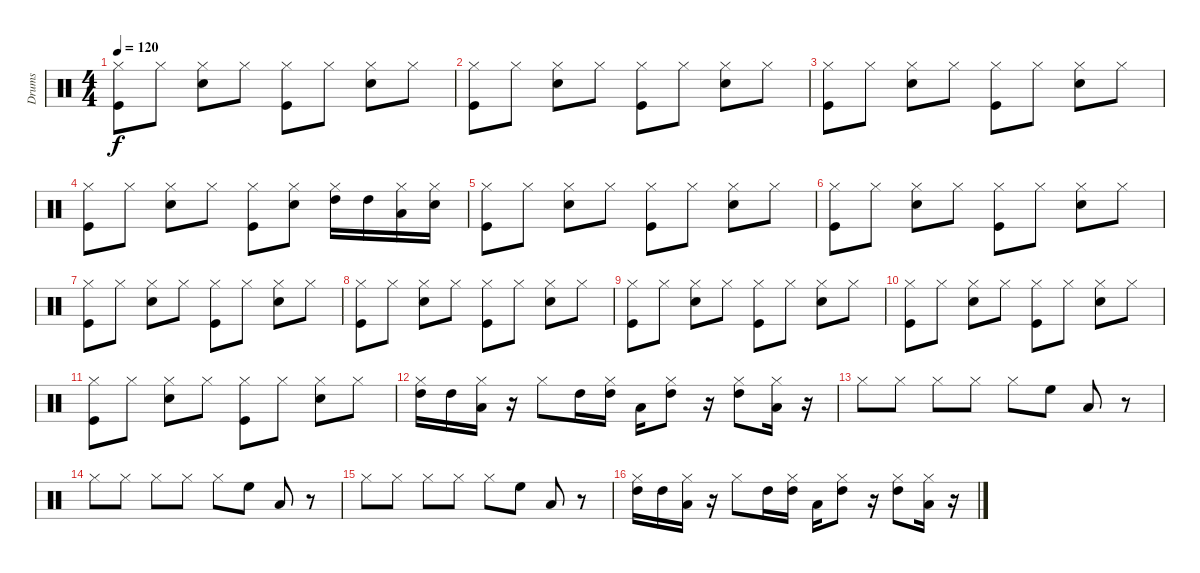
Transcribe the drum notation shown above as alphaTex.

\track ("Drums" "Drums") {instrument percussion}
\staff {score}
\articulation defaults
\ts (4 4)
\tempo 120
\clef neutral
\ks c
("Kick (hit)" "Hi-Hat (closed)").8{dy f} "Hi-Hat (closed)".8 ("Snare (hit) 2" "Hi-Hat (closed)").8 "Hi-Hat (closed)".8 ("Kick (hit)" "Hi-Hat (closed)").8 "Hi-Hat (closed)".8 ("Snare (hit) 2" "Hi-Hat (closed)").8 "Hi-Hat (closed)".8 |
("Kick (hit)" "Hi-Hat (closed)").8 "Hi-Hat (closed)".8 ("Snare (hit) 2" "Hi-Hat (closed)").8 "Hi-Hat (closed)".8 ("Kick (hit)" "Hi-Hat (closed)").8 "Hi-Hat (closed)".8 ("Snare (hit) 2" "Hi-Hat (closed)").8 "Hi-Hat (closed)".8 |
("Kick (hit)" "Hi-Hat (closed)").8 "Hi-Hat (closed)".8 ("Snare (hit) 2" "Hi-Hat (closed)").8 "Hi-Hat (closed)".8 ("Kick (hit)" "Hi-Hat (closed)").8 "Hi-Hat (closed)".8 ("Snare (hit) 2" "Hi-Hat (closed)").8 "Hi-Hat (closed)".8 |
("Kick (hit)" "Hi-Hat (closed)").8 "Hi-Hat (closed)".8 ("Snare (hit) 2" "Hi-Hat (closed)").8 "Hi-Hat (closed)".8 ("Kick (hit)" "Hi-Hat (closed)").8 ("Snare (hit) 2" "Hi-Hat (closed)").8 ("High Tom (hit)" "Hi-Hat (closed)").16 "High Tom (hit)".16 ("Low Tom (hit)" "Hi-Hat (closed)").16 ("Snare (hit) 2" "Hi-Hat (closed)").16 |
("Kick (hit)" "Hi-Hat (closed)").8 "Hi-Hat (closed)".8 ("Snare (hit) 2" "Hi-Hat (closed)").8 "Hi-Hat (closed)".8 ("Kick (hit)" "Hi-Hat (closed)").8 "Hi-Hat (closed)".8 ("Snare (hit) 2" "Hi-Hat (closed)").8 "Hi-Hat (closed)".8 |
("Kick (hit)" "Hi-Hat (closed)").8 "Hi-Hat (closed)".8 ("Snare (hit) 2" "Hi-Hat (closed)").8 "Hi-Hat (closed)".8 ("Kick (hit)" "Hi-Hat (closed)").8 "Hi-Hat (closed)".8 ("Snare (hit) 2" "Hi-Hat (closed)").8 "Hi-Hat (closed)".8 |
("Kick (hit)" "Hi-Hat (closed)").8 "Hi-Hat (closed)".8 ("Snare (hit) 2" "Hi-Hat (closed)").8 "Hi-Hat (closed)".8 ("Kick (hit)" "Hi-Hat (closed)").8 "Hi-Hat (closed)".8 ("Snare (hit) 2" "Hi-Hat (closed)").8 "Hi-Hat (closed)".8 |
("Kick (hit)" "Hi-Hat (closed)").8 "Hi-Hat (closed)".8 ("Snare (hit) 2" "Hi-Hat (closed)").8 "Hi-Hat (closed)".8 ("Kick (hit)" "Hi-Hat (closed)").8 "Hi-Hat (closed)".8 ("Snare (hit) 2" "Hi-Hat (closed)").8 "Hi-Hat (closed)".8 |
("Kick (hit)" "Hi-Hat (closed)").8 "Hi-Hat (closed)".8 ("Snare (hit) 2" "Hi-Hat (closed)").8 "Hi-Hat (closed)".8 ("Kick (hit)" "Hi-Hat (closed)").8 "Hi-Hat (closed)".8 ("Snare (hit) 2" "Hi-Hat (closed)").8 "Hi-Hat (closed)".8 |
("Kick (hit)" "Hi-Hat (closed)").8 "Hi-Hat (closed)".8 ("Snare (hit) 2" "Hi-Hat (closed)").8 "Hi-Hat (closed)".8 ("Kick (hit)" "Hi-Hat (closed)").8 "Hi-Hat (closed)".8 ("Snare (hit) 2" "Hi-Hat (closed)").8 "Hi-Hat (closed)".8 |
("Kick (hit)" "Hi-Hat (closed)").8 "Hi-Hat (closed)".8 ("Snare (hit) 2" "Hi-Hat (closed)").8 "Hi-Hat (closed)".8 ("Kick (hit)" "Hi-Hat (closed)").8 "Hi-Hat (closed)".8 ("Snare (hit) 2" "Hi-Hat (closed)").8 "Hi-Hat (closed)".8 |
("High Tom (hit)" "Hi-Hat (closed)").16 "High Tom (hit)".16 ("Low Tom (hit)" "Hi-Hat (closed)").16 r.16 "Hi-Hat (closed)".8 "High Tom (hit)".16 ("High Tom (hit)" "Hi-Hat (closed)").16 "Low Tom (hit)".16 ("High Tom (hit)" "Hi-Hat (closed)").8 r.16 ("High Tom (hit)" "Hi-Hat (closed)").8 ("Low Tom (hit)" "Hi-Hat (closed)").16 r.16 |
"Hi-Hat (closed)".8 "Hi-Hat (closed)".8 "Hi-Hat (closed)".8 "Hi-Hat (closed)".8 "Hi-Hat (closed)".8 "High Floor Tom (hit)".8 "Low Tom (hit)".8 r.8 |
"Hi-Hat (closed)".8 "Hi-Hat (closed)".8 "Hi-Hat (closed)".8 "Hi-Hat (closed)".8 "Hi-Hat (closed)".8 "High Floor Tom (hit)".8 "Low Tom (hit)".8 r.8 |
"Hi-Hat (closed)".8 "Hi-Hat (closed)".8 "Hi-Hat (closed)".8 "Hi-Hat (closed)".8 "Hi-Hat (closed)".8 "High Floor Tom (hit)".8 "Low Tom (hit)".8 r.8 |
("High Tom (hit)" "Hi-Hat (closed)").16 "High Tom (hit)".16 ("Low Tom (hit)" "Hi-Hat (closed)").16 r.16 "Hi-Hat (closed)".8 "High Tom (hit)".16 ("High Tom (hit)" "Hi-Hat (closed)").16 "Low Tom (hit)".16 ("High Tom (hit)" "Hi-Hat (closed)").8 r.16 ("High Tom (hit)" "Hi-Hat (closed)").8 ("Low Tom (hit)" "Hi-Hat (closed)").16 r.16
